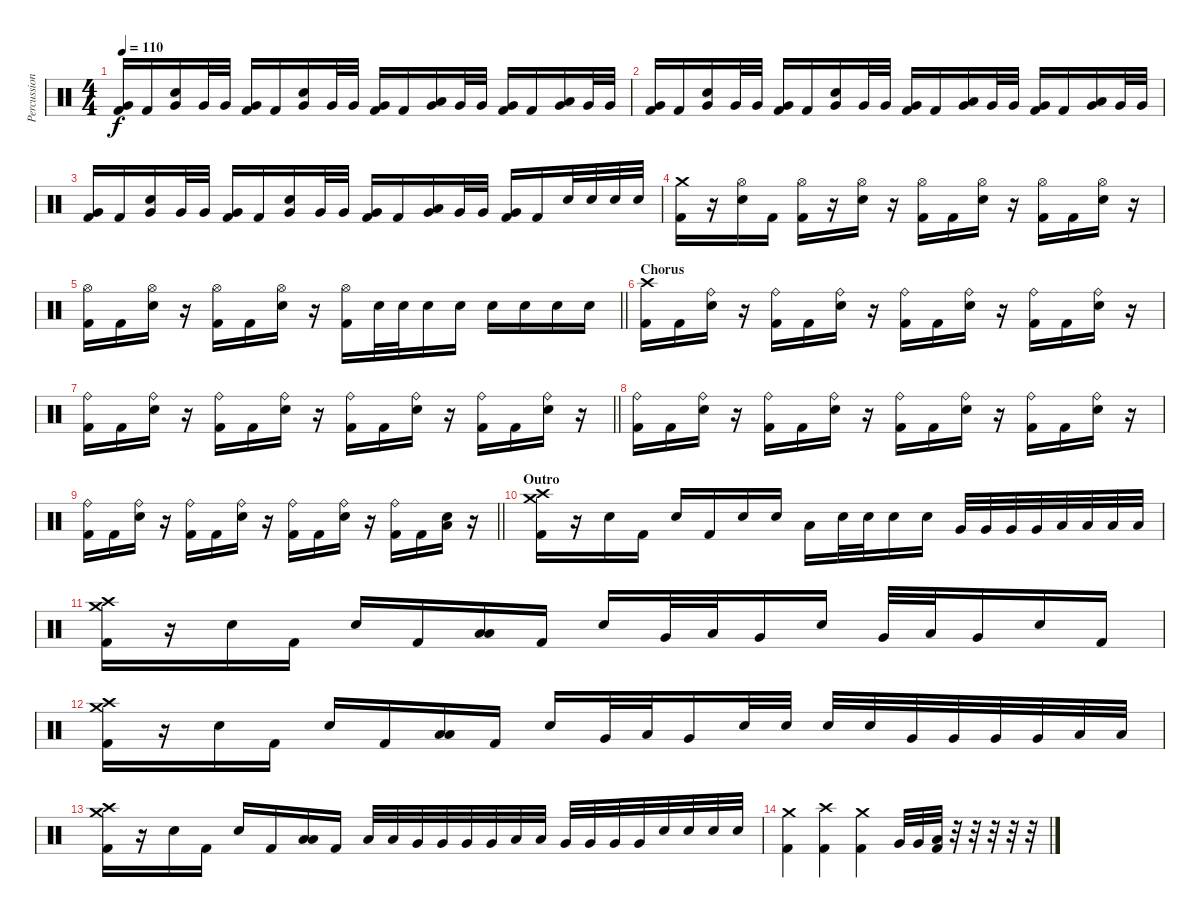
\track ("Percussion" "Percussion") {instrument percussion}
\staff {score}
\articulation defaults
\ts (4 4)
\tempo 110
\clef neutral
\ks c
("Very Low Tom (hit)" "Kick (hit) 2").16{dy f} "Kick (hit) 2".16 ("Very Low Tom (hit)" "Electric Snare (hit)").16 "Very Low Tom (hit)".32 "Very Low Tom (hit)".32 ("Very Low Tom (hit)" "Kick (hit) 2").16 "Kick (hit) 2".16 ("Very Low Tom (hit)" "Electric Snare (hit)").16 "Very Low Tom (hit)".32 "Very Low Tom (hit)".32 ("Very Low Tom (hit)" "Kick (hit) 2").16 "Kick (hit) 2".16 ("Very Low Tom (hit)" "Low Tom (hit)").16 "Very Low Tom (hit)".32 "Very Low Tom (hit)".32 ("Very Low Tom (hit)" "Kick (hit) 2").16 "Kick (hit) 2".16 ("Very Low Tom (hit)" "Low Tom (hit)").16 "Very Low Tom (hit)".32 "Very Low Tom (hit)".32 |
("Very Low Tom (hit)" "Kick (hit) 2").16 "Kick (hit) 2".16 ("Very Low Tom (hit)" "Electric Snare (hit)").16 "Very Low Tom (hit)".32 "Very Low Tom (hit)".32 ("Very Low Tom (hit)" "Kick (hit) 2").16 "Kick (hit) 2".16 ("Very Low Tom (hit)" "Electric Snare (hit)").16 "Very Low Tom (hit)".32 "Very Low Tom (hit)".32 ("Very Low Tom (hit)" "Kick (hit) 2").16 "Kick (hit) 2".16 ("Very Low Tom (hit)" "Low Tom (hit)").16 "Very Low Tom (hit)".32 "Very Low Tom (hit)".32 ("Very Low Tom (hit)" "Kick (hit) 2").16 "Kick (hit) 2".16 ("Very Low Tom (hit)" "Low Tom (hit)").16 "Very Low Tom (hit)".32 "Very Low Tom (hit)".32 |
("Very Low Tom (hit)" "Kick (hit) 2").16 "Kick (hit) 2".16 ("Very Low Tom (hit)" "Electric Snare (hit)").16 "Very Low Tom (hit)".32 "Very Low Tom (hit)".32 ("Very Low Tom (hit)" "Kick (hit) 2").16 "Kick (hit) 2".16 ("Very Low Tom (hit)" "Electric Snare (hit)").16 "Very Low Tom (hit)".32 "Very Low Tom (hit)".32 ("Very Low Tom (hit)" "Kick (hit) 2").16 "Kick (hit) 2".16 ("Very Low Tom (hit)" "Low Tom (hit)").16 "Very Low Tom (hit)".32 "Very Low Tom (hit)".32 ("Very Low Tom (hit)" "Kick (hit) 2").16 "Kick (hit) 2".16 "Electric Snare (hit)".32 "Electric Snare (hit)".32 "Electric Snare (hit)".32 "Electric Snare (hit)".32 |
("Crash medium (hit)" "Kick (hit) 2").16 r.16 ("Hi-Hat (open)" "Electric Snare (hit)").16 "Kick (hit) 2".16 ("Hi-Hat (open)" "Kick (hit) 2").16 r.16 ("Hi-Hat (open)" "Electric Snare (hit)").16 r.16 ("Hi-Hat (open)" "Kick (hit) 2").16 "Kick (hit) 2".16 ("Hi-Hat (open)" "Electric Snare (hit)").16 r.16 ("Hi-Hat (open)" "Kick (hit) 2").16 "Kick (hit) 2".16 ("Hi-Hat (open)" "Electric Snare (hit)").16 r.16 |
\barLineRight lightlight
("Hi-Hat (open)" "Kick (hit) 2").16 "Kick (hit) 2".16 ("Hi-Hat (open)" "Electric Snare (hit)").16 r.16 ("Hi-Hat (open)" "Kick (hit) 2").16 "Kick (hit) 2".16 ("Hi-Hat (open)" "Electric Snare (hit)").16 r.16 ("Hi-Hat (open)" "Kick (hit) 2").16 "Electric Snare (hit)".32 "Electric Snare (hit)".32 "Electric Snare (hit)".16 "Electric Snare (hit)".16 "Electric Snare (hit)".16 "Electric Snare (hit)".16 "Electric Snare (hit)".16 "Electric Snare (hit)".16 |
\section ("" "Chorus")
("Crash high (hit)" "Kick (hit) 2").16 "Kick (hit) 2".16 ("Ride (bell)" "Electric Snare (hit)").16 r.16 ("Ride (bell)" "Kick (hit) 2").16 "Kick (hit) 2".16 ("Ride (bell)" "Electric Snare (hit)").16 r.16 ("Ride (bell)" "Kick (hit) 2").16 "Kick (hit) 2".16 ("Ride (bell)" "Electric Snare (hit)").16 r.16 ("Ride (bell)" "Kick (hit) 2").16 "Kick (hit) 2".16 ("Ride (bell)" "Electric Snare (hit)").16 r.16 |
\barLineRight lightlight
("Ride (bell)" "Kick (hit) 2").16 "Kick (hit) 2".16 ("Ride (bell)" "Electric Snare (hit)").16 r.16 ("Ride (bell)" "Kick (hit) 2").16 "Kick (hit) 2".16 ("Ride (bell)" "Electric Snare (hit)").16 r.16 ("Ride (bell)" "Kick (hit) 2").16 "Kick (hit) 2".16 ("Ride (bell)" "Electric Snare (hit)").16 r.16 ("Ride (bell)" "Kick (hit) 2").16 "Kick (hit) 2".16 ("Ride (bell)" "Electric Snare (hit)").16 r.16 |
("Ride (bell)" "Kick (hit) 2").16 "Kick (hit) 2".16 ("Ride (bell)" "Electric Snare (hit)").16 r.16 ("Ride (bell)" "Kick (hit) 2").16 "Kick (hit) 2".16 ("Ride (bell)" "Electric Snare (hit)").16 r.16 ("Ride (bell)" "Kick (hit) 2").16 "Kick (hit) 2".16 ("Ride (bell)" "Electric Snare (hit)").16 r.16 ("Ride (bell)" "Kick (hit) 2").16 "Kick (hit) 2".16 ("Ride (bell)" "Electric Snare (hit)").16 r.16 |
\barLineRight lightlight
("Ride (bell)" "Kick (hit) 2").16 "Kick (hit) 2".16 ("Ride (bell)" "Electric Snare (hit)").16 r.16 ("Ride (bell)" "Kick (hit) 2").16 "Kick (hit) 2".16 ("Ride (bell)" "Electric Snare (hit)").16 r.16 ("Ride (bell)" "Kick (hit) 2").16 "Kick (hit) 2".16 ("Ride (bell)" "Electric Snare (hit)").16 r.16 ("Ride (bell)" "Kick (hit) 2").16 "Kick (hit) 2".16 ("Electric Snare (hit)" "Low Floor Tom (hit)").16 r.16 |
\section ("" "Outro")
("Crash medium (hit)" "Crash high (hit)" "Kick (hit) 2").16 r.16 "Electric Snare (hit)".16 "Kick (hit) 2".16 "Electric Snare (hit)".16 "Kick (hit) 2".16 "Electric Snare (hit)".16 "Electric Snare (hit)".16 "Low Tom (hit)".16 "Electric Snare (hit)".32 "Electric Snare (hit)".32 "Electric Snare (hit)".16 "Electric Snare (hit)".16 "Very Low Tom (hit)".32 "Very Low Tom (hit)".32 "Very Low Tom (hit)".32 "Very Low Tom (hit)".32 "Low Floor Tom (hit)".32 "Low Floor Tom (hit)".32 "Low Floor Tom (hit)".32 "Low Floor Tom (hit)".32 |
("Crash medium (hit)" "Crash high (hit)" "Kick (hit) 2").16 r.16 "Electric Snare (hit)".16 "Kick (hit) 2".16 "Electric Snare (hit)".16 "Kick (hit) 2".16 ("Low Tom (hit)" "Low Floor Tom (hit)").16 "Kick (hit) 2".16 "Electric Snare (hit)".16 "Very Low Tom (hit)".32 "Low Tom (hit)".32 "Very Low Tom (hit)".16 "Electric Snare (hit)".16 "Very Low Tom (hit)".32 "Low Tom (hit)".32 "Very Low Tom (hit)".16 "Electric Snare (hit)".16 "Kick (hit) 2".16 |
("Crash medium (hit)" "Crash high (hit)" "Kick (hit) 2").16 r.16 "Electric Snare (hit)".16 "Kick (hit) 2".16 "Electric Snare (hit)".16 "Kick (hit) 2".16 ("Low Tom (hit)" "Low Floor Tom (hit)").16 "Kick (hit) 2".16 "Electric Snare (hit)".16 "Very Low Tom (hit)".32 "Low Tom (hit)".32 "Very Low Tom (hit)".16 "Electric Snare (hit)".32 "Electric Snare (hit)".32 "Electric Snare (hit)".32 "Electric Snare (hit)".32 "Very Low Tom (hit)".32 "Very Low Tom (hit)".32 "Very Low Tom (hit)".32 "Very Low Tom (hit)".32 "Low Floor Tom (hit)".32 "Low Floor Tom (hit)".32 |
("Crash medium (hit)" "Crash high (hit)" "Kick (hit) 2").16 r.16 "Electric Snare (hit)".16 "Kick (hit) 2".16 "Electric Snare (hit)".16 "Kick (hit) 2".16 ("Low Tom (hit)" "Low Floor Tom (hit)").16 "Kick (hit) 2".16 "Low Tom (hit)".32 "Low Tom (hit)".32 "Very Low Tom (hit)".32 "Very Low Tom (hit)".32 "Very Low Tom (hit)".32 "Very Low Tom (hit)".32 "Low Tom (hit)".32 "Low Tom (hit)".32 "Very Low Tom (hit)".32 "Very Low Tom (hit)".32 "Very Low Tom (hit)".32 "Very Low Tom (hit)".32 "Electric Snare (hit)".32 "Electric Snare (hit)".32 "Electric Snare (hit)".32 "Electric Snare (hit)".32 |
("Crash medium (hit)" "Kick (hit) 2").4 ("Crash high (hit)" "Kick (hit) 2").4 ("Crash medium (hit)" "Kick (hit) 2").4 "Very Low Tom (hit)".32 "Very Low Tom (hit)".32 ("Low Floor Tom (hit)" "Kick (hit) 2").32 r.32 r.32 r.32 r.32 r.32
